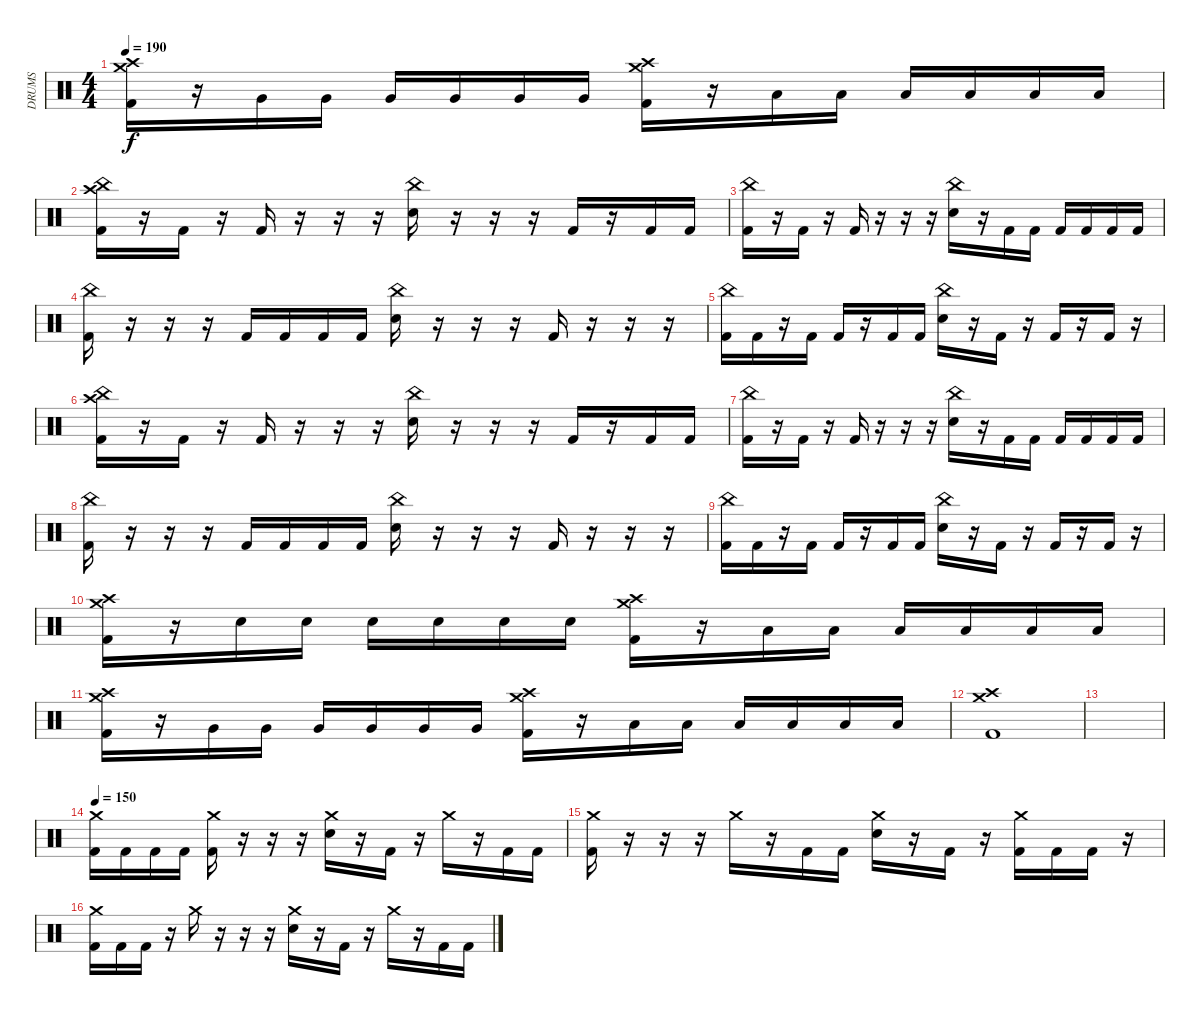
\track ("DRUMS" "DRUMS") {instrument percussion}
\staff {score}
\articulation defaults
\ts (4 4)
\tempo 190
\clef neutral
\ks c
("Crash high (hit)" "Crash medium (hit)" "Kick (hit) 2").16{dy f} r.16 "Very Low Tom (hit)".16 "Very Low Tom (hit)".16 "Very Low Tom (hit)".16 "Very Low Tom (hit)".16 "Very Low Tom (hit)".16 "Very Low Tom (hit)".16 ("Crash high (hit)" "Crash medium (hit)" "Kick (hit) 2").16 r.16 "Low Floor Tom (hit)".16 "Low Floor Tom (hit)".16 "Low Floor Tom (hit)".16 "Low Floor Tom (hit)".16 "Low Floor Tom (hit)".16 "Low Floor Tom (hit)".16 |
("China (hit)" "Crash high (hit)" "Kick (hit) 2").16 r.16 "Kick (hit) 2".16 r.16 "Kick (hit) 2".16 r.16 r.16 r.16 ("China (hit)" "Electric Snare (hit)").16 r.16 r.16 r.16 "Kick (hit) 2".16 r.16 "Kick (hit) 2".16 "Kick (hit) 2".16 |
("China (hit)" "Kick (hit) 2").16 r.16 "Kick (hit) 2".16 r.16 "Kick (hit) 2".16 r.16 r.16 r.16 ("China (hit)" "Electric Snare (hit)").16 r.16 "Kick (hit) 2".16 "Kick (hit) 2".16 "Kick (hit) 2".16 "Kick (hit) 2".16 "Kick (hit) 2".16 "Kick (hit) 2".16 |
("China (hit)" "Kick (hit) 2").16 r.16 r.16 r.16 "Kick (hit) 2".16 "Kick (hit) 2".16 "Kick (hit) 2".16 "Kick (hit) 2".16 ("China (hit)" "Electric Snare (hit)").16 r.16 r.16 r.16 "Kick (hit) 2".16 r.16 r.16 r.16 |
("China (hit)" "Kick (hit) 2").16 "Kick (hit) 2".16 r.16 "Kick (hit) 2".16 "Kick (hit) 2".16 r.16 "Kick (hit) 2".16 "Kick (hit) 2".16 ("China (hit)" "Electric Snare (hit)").16 r.16 "Kick (hit) 2".16 r.16 "Kick (hit) 2".16 r.16 "Kick (hit) 2".16 r.16 |
("China (hit)" "Crash high (hit)" "Kick (hit) 2").16 r.16 "Kick (hit) 2".16 r.16 "Kick (hit) 2".16 r.16 r.16 r.16 ("China (hit)" "Electric Snare (hit)").16 r.16 r.16 r.16 "Kick (hit) 2".16 r.16 "Kick (hit) 2".16 "Kick (hit) 2".16 |
("China (hit)" "Kick (hit) 2").16 r.16 "Kick (hit) 2".16 r.16 "Kick (hit) 2".16 r.16 r.16 r.16 ("China (hit)" "Electric Snare (hit)").16 r.16 "Kick (hit) 2".16 "Kick (hit) 2".16 "Kick (hit) 2".16 "Kick (hit) 2".16 "Kick (hit) 2".16 "Kick (hit) 2".16 |
("China (hit)" "Kick (hit) 2").16 r.16 r.16 r.16 "Kick (hit) 2".16 "Kick (hit) 2".16 "Kick (hit) 2".16 "Kick (hit) 2".16 ("China (hit)" "Electric Snare (hit)").16 r.16 r.16 r.16 "Kick (hit) 2".16 r.16 r.16 r.16 |
("China (hit)" "Kick (hit) 2").16 "Kick (hit) 2".16 r.16 "Kick (hit) 2".16 "Kick (hit) 2".16 r.16 "Kick (hit) 2".16 "Kick (hit) 2".16 ("China (hit)" "Electric Snare (hit)").16 r.16 "Kick (hit) 2".16 r.16 "Kick (hit) 2".16 r.16 "Kick (hit) 2".16 r.16 |
("Crash high (hit)" "Crash medium (hit)" "Kick (hit) 2").16 r.16 "Electric Snare (hit)".16 "Electric Snare (hit)".16 "Electric Snare (hit)".16 "Electric Snare (hit)".16 "Electric Snare (hit)".16 "Electric Snare (hit)".16 ("Crash high (hit)" "Crash medium (hit)" "Kick (hit) 2").16 r.16 "Low Tom (hit)".16 "Low Tom (hit)".16 "Low Tom (hit)".16 "Low Tom (hit)".16 "Low Tom (hit)".16 "Low Tom (hit)".16 |
("Crash high (hit)" "Crash medium (hit)" "Kick (hit) 2").16 r.16 "Very Low Tom (hit)".16 "Very Low Tom (hit)".16 "Very Low Tom (hit)".16 "Very Low Tom (hit)".16 "Very Low Tom (hit)".16 "Very Low Tom (hit)".16 ("Crash high (hit)" "Crash medium (hit)" "Kick (hit) 2").16 r.16 "Low Floor Tom (hit)".16 "Low Floor Tom (hit)".16 "Low Floor Tom (hit)".16 "Low Floor Tom (hit)".16 "Low Floor Tom (hit)".16 "Low Floor Tom (hit)".16 |
("Crash high (hit)" "Crash medium (hit)" "Kick (hit) 2").1 |
|
\tempo 150
("Crash medium (hit)" "Kick (hit) 2").16 "Kick (hit) 2".16 "Kick (hit) 2".16 "Kick (hit) 2".16 ("Crash medium (hit)" "Kick (hit) 2").16 r.16 r.16 r.16 ("Crash medium (hit)" "Electric Snare (hit)").16 r.16 "Kick (hit) 2".16 r.16 "Crash medium (hit)".16 r.16 "Kick (hit) 2".16 "Kick (hit) 2".16 |
("Crash medium (hit)" "Kick (hit) 2").16 r.16 r.16 r.16 "Crash medium (hit)".16 r.16 "Kick (hit) 2".16 "Kick (hit) 2".16 ("Crash medium (hit)" "Electric Snare (hit)").16 r.16 "Kick (hit) 2".16 r.16 ("Crash medium (hit)" "Kick (hit) 2").16 "Kick (hit) 2".16 "Kick (hit) 2".16 r.16 |
("Crash medium (hit)" "Kick (hit) 2").16 "Kick (hit) 2".16 "Kick (hit) 2".16 r.16 "Crash medium (hit)".16 r.16 r.16 r.16 ("Crash medium (hit)" "Electric Snare (hit)").16 r.16 "Kick (hit) 2".16 r.16 "Crash medium (hit)".16 r.16 "Kick (hit) 2".16 "Kick (hit) 2".16
